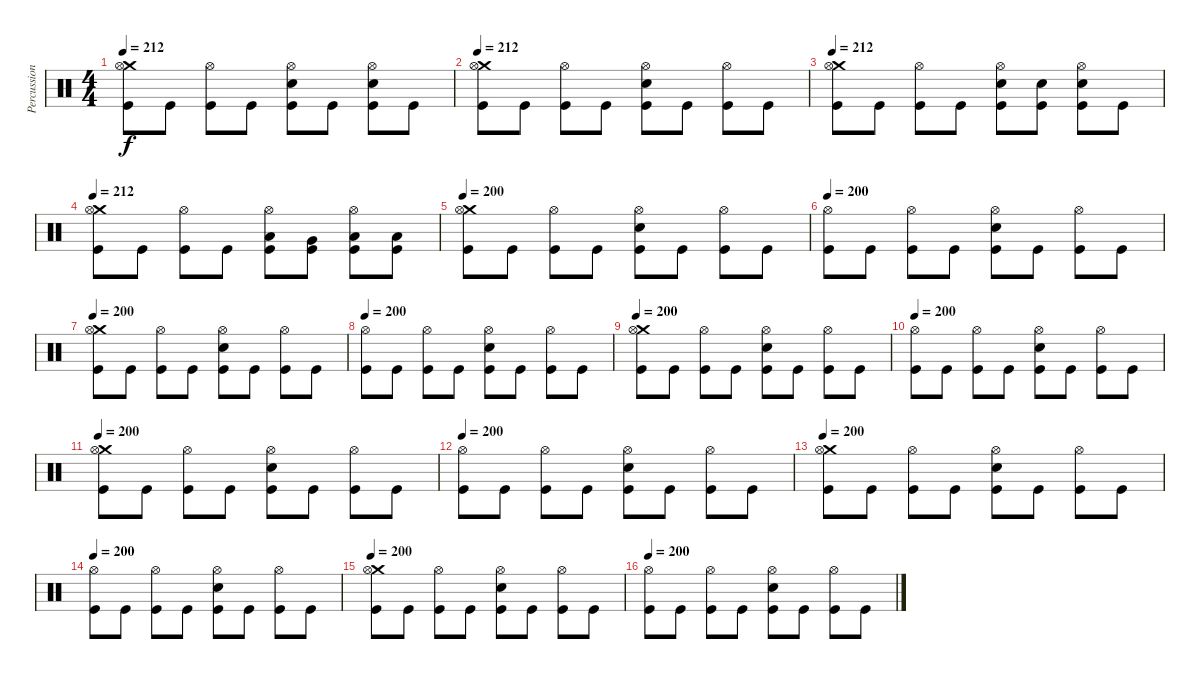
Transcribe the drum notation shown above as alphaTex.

\track ("Percussion" "Percussion") {instrument percussion}
\staff {score}
\articulation defaults
\ts (4 4)
\tempo 212
\clef neutral
\ks c
("Crash medium (hit)" "Hi-Hat (open)" "Kick (hit)").8{dy f} "Kick (hit)".8 ("Hi-Hat (open)" "Kick (hit)").8 "Kick (hit)".8 ("Electric Snare (hit)" "Hi-Hat (open)" "Kick (hit)").8 "Kick (hit)".8 ("Electric Snare (hit)" "Hi-Hat (open)" "Kick (hit)").8 "Kick (hit)".8 |
\tempo 212
("Crash medium (hit)" "Hi-Hat (open)" "Kick (hit)").8 "Kick (hit)".8 ("Hi-Hat (open)" "Kick (hit)").8 "Kick (hit)".8 ("Electric Snare (hit)" "Hi-Hat (open)" "Kick (hit)").8 "Kick (hit)".8 ("Hi-Hat (open)" "Kick (hit)").8 "Kick (hit)".8 |
\tempo 212
("Crash medium (hit)" "Hi-Hat (open)" "Kick (hit)").8 "Kick (hit)".8 ("Hi-Hat (open)" "Kick (hit)").8 "Kick (hit)".8 ("Electric Snare (hit)" "Hi-Hat (open)" "Kick (hit)").8 ("Electric Snare (hit)" "Kick (hit)").8 ("Electric Snare (hit)" "Hi-Hat (open)" "Kick (hit)").8 "Kick (hit)".8 |
\tempo 212
("Crash medium (hit)" "Hi-Hat (open)" "Kick (hit)").8 "Kick (hit)".8 ("Hi-Hat (open)" "Kick (hit)").8 "Kick (hit)".8 ("Low Floor Tom (hit)" "Hi-Hat (open)" "Kick (hit)").8 ("Very Low Tom (hit)" "Kick (hit)").8 ("Low Tom (hit)" "Hi-Hat (open)" "Kick (hit)").8 ("Low Floor Tom (hit)" "Kick (hit)").8 |
\tempo 200
("Crash medium (hit)" "Hi-Hat (open)" "Kick (hit)").8 "Kick (hit)".8 ("Hi-Hat (open)" "Kick (hit)").8 "Kick (hit)".8 ("Electric Snare (hit)" "Hi-Hat (open)" "Kick (hit)").8 "Kick (hit)".8 ("Hi-Hat (open)" "Kick (hit)").8 "Kick (hit)".8 |
\tempo 200
("Hi-Hat (open)" "Kick (hit)").8 "Kick (hit)".8 ("Hi-Hat (open)" "Kick (hit)").8 "Kick (hit)".8 ("Electric Snare (hit)" "Hi-Hat (open)" "Kick (hit)").8 "Kick (hit)".8 ("Hi-Hat (open)" "Kick (hit)").8 "Kick (hit)".8 |
\tempo 200
("Crash medium (hit)" "Hi-Hat (open)" "Kick (hit)").8 "Kick (hit)".8 ("Hi-Hat (open)" "Kick (hit)").8 "Kick (hit)".8 ("Electric Snare (hit)" "Hi-Hat (open)" "Kick (hit)").8 "Kick (hit)".8 ("Hi-Hat (open)" "Kick (hit)").8 "Kick (hit)".8 |
\tempo 200
("Hi-Hat (open)" "Kick (hit)").8 "Kick (hit)".8 ("Hi-Hat (open)" "Kick (hit)").8 "Kick (hit)".8 ("Electric Snare (hit)" "Hi-Hat (open)" "Kick (hit)").8 "Kick (hit)".8 ("Hi-Hat (open)" "Kick (hit)").8 "Kick (hit)".8 |
\tempo 200
("Crash medium (hit)" "Hi-Hat (open)" "Kick (hit)").8 "Kick (hit)".8 ("Hi-Hat (open)" "Kick (hit)").8 "Kick (hit)".8 ("Electric Snare (hit)" "Hi-Hat (open)" "Kick (hit)").8 "Kick (hit)".8 ("Hi-Hat (open)" "Kick (hit)").8 "Kick (hit)".8 |
\tempo 200
("Hi-Hat (open)" "Kick (hit)").8 "Kick (hit)".8 ("Hi-Hat (open)" "Kick (hit)").8 "Kick (hit)".8 ("Electric Snare (hit)" "Hi-Hat (open)" "Kick (hit)").8 "Kick (hit)".8 ("Hi-Hat (open)" "Kick (hit)").8 "Kick (hit)".8 |
\tempo 200
("Crash medium (hit)" "Hi-Hat (open)" "Kick (hit)").8 "Kick (hit)".8 ("Hi-Hat (open)" "Kick (hit)").8 "Kick (hit)".8 ("Electric Snare (hit)" "Hi-Hat (open)" "Kick (hit)").8 "Kick (hit)".8 ("Hi-Hat (open)" "Kick (hit)").8 "Kick (hit)".8 |
\tempo 200
("Hi-Hat (open)" "Kick (hit)").8 "Kick (hit)".8 ("Hi-Hat (open)" "Kick (hit)").8 "Kick (hit)".8 ("Electric Snare (hit)" "Hi-Hat (open)" "Kick (hit)").8 "Kick (hit)".8 ("Hi-Hat (open)" "Kick (hit)").8 "Kick (hit)".8 |
\tempo 200
("Crash medium (hit)" "Hi-Hat (open)" "Kick (hit)").8 "Kick (hit)".8 ("Hi-Hat (open)" "Kick (hit)").8 "Kick (hit)".8 ("Electric Snare (hit)" "Hi-Hat (open)" "Kick (hit)").8 "Kick (hit)".8 ("Hi-Hat (open)" "Kick (hit)").8 "Kick (hit)".8 |
\tempo 200
("Hi-Hat (open)" "Kick (hit)").8 "Kick (hit)".8 ("Hi-Hat (open)" "Kick (hit)").8 "Kick (hit)".8 ("Electric Snare (hit)" "Hi-Hat (open)" "Kick (hit)").8 "Kick (hit)".8 ("Hi-Hat (open)" "Kick (hit)").8 "Kick (hit)".8 |
\tempo 200
("Crash medium (hit)" "Hi-Hat (open)" "Kick (hit)").8 "Kick (hit)".8 ("Hi-Hat (open)" "Kick (hit)").8 "Kick (hit)".8 ("Electric Snare (hit)" "Hi-Hat (open)" "Kick (hit)").8 "Kick (hit)".8 ("Hi-Hat (open)" "Kick (hit)").8 "Kick (hit)".8 |
\tempo 200
("Hi-Hat (open)" "Kick (hit)").8 "Kick (hit)".8 ("Hi-Hat (open)" "Kick (hit)").8 "Kick (hit)".8 ("Electric Snare (hit)" "Hi-Hat (open)" "Kick (hit)").8 "Kick (hit)".8 ("Hi-Hat (open)" "Kick (hit)").8 "Kick (hit)".8
